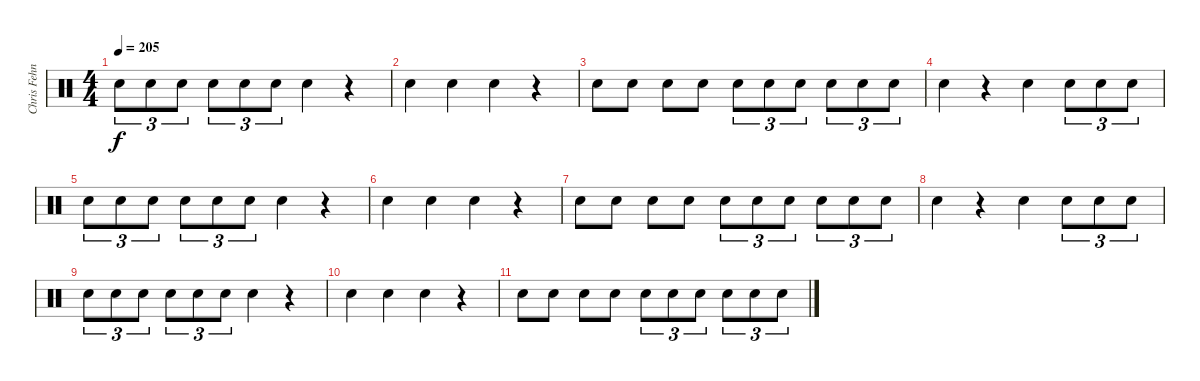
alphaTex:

\track ("Chris Fehn" "Chris Fehn") {instrument percussion}
\staff {score}
\articulation defaults
\ts (4 4)
\tempo 205
\clef neutral
\ks c "Electric Snare (hit)".8{tu (3 2) dy f} "Electric Snare (hit)".8{tu (3 2)} "Electric Snare (hit)".8{tu (3 2)} "Electric Snare (hit)".8{tu (3 2)} "Electric Snare (hit)".8{tu (3 2)} "Electric Snare (hit)".8{tu (3 2)} "Electric Snare (hit)".4
r.4 |
"Electric Snare (hit)".4 "Electric Snare (hit)".4 "Electric Snare (hit)".4 r.4 |
"Electric Snare (hit)".8 "Electric Snare (hit)".8 "Electric Snare (hit)".8 "Electric Snare (hit)".8 "Electric Snare (hit)".8{tu (3 2)} "Electric Snare (hit)".8{tu (3 2)} "Electric Snare (hit)".8{tu (3 2)} "Electric Snare (hit)".8{tu (3 2)} "Electric Snare (hit)".8{tu (3 2)} "Electric Snare (hit)".8{tu (3 2)} |
"Electric Snare (hit)".4 r.4 "Electric Snare (hit)".4 "Electric Snare (hit)".8{tu (3 2)} "Electric Snare (hit)".8{tu (3 2)} "Electric Snare (hit)".8{tu (3 2)} |
"Electric Snare (hit)".8{tu (3 2)} "Electric Snare (hit)".8{tu (3 2)} "Electric Snare (hit)".8{tu (3 2)} "Electric Snare (hit)".8{tu (3 2)} "Electric Snare (hit)".8{tu (3 2)} "Electric Snare (hit)".8{tu (3 2)} "Electric Snare (hit)".4 r.4 |
"Electric Snare (hit)".4 "Electric Snare (hit)".4 "Electric Snare (hit)".4 r.4 |
"Electric Snare (hit)".8 "Electric Snare (hit)".8 "Electric Snare (hit)".8 "Electric Snare (hit)".8 "Electric Snare (hit)".8{tu (3 2)} "Electric Snare (hit)".8{tu (3 2)} "Electric Snare (hit)".8{tu (3 2)} "Electric Snare (hit)".8{tu (3 2)} "Electric Snare (hit)".8{tu (3 2)} "Electric Snare (hit)".8{tu (3 2)} |
"Electric Snare (hit)".4 r.4 "Electric Snare (hit)".4 "Electric Snare (hit)".8{tu (3 2)} "Electric Snare (hit)".8{tu (3 2)} "Electric Snare (hit)".8{tu (3 2)} |
"Electric Snare (hit)".8{tu (3 2)} "Electric Snare (hit)".8{tu (3 2)} "Electric Snare (hit)".8{tu (3 2)} "Electric Snare (hit)".8{tu (3 2)} "Electric Snare (hit)".8{tu (3 2)} "Electric Snare (hit)".8{tu (3 2)} "Electric Snare (hit)".4 r.4 |
"Electric Snare (hit)".4 "Electric Snare (hit)".4 "Electric Snare (hit)".4 r.4 |
"Electric Snare (hit)".8 "Electric Snare (hit)".8 "Electric Snare (hit)".8 "Electric Snare (hit)".8 "Electric Snare (hit)".8{tu (3 2)} "Electric Snare (hit)".8{tu (3 2)} "Electric Snare (hit)".8{tu (3 2)} "Electric Snare (hit)".8{tu (3 2)} "Electric Snare (hit)".8{tu (3 2)} "Electric Snare (hit)".8{tu (3 2)}
